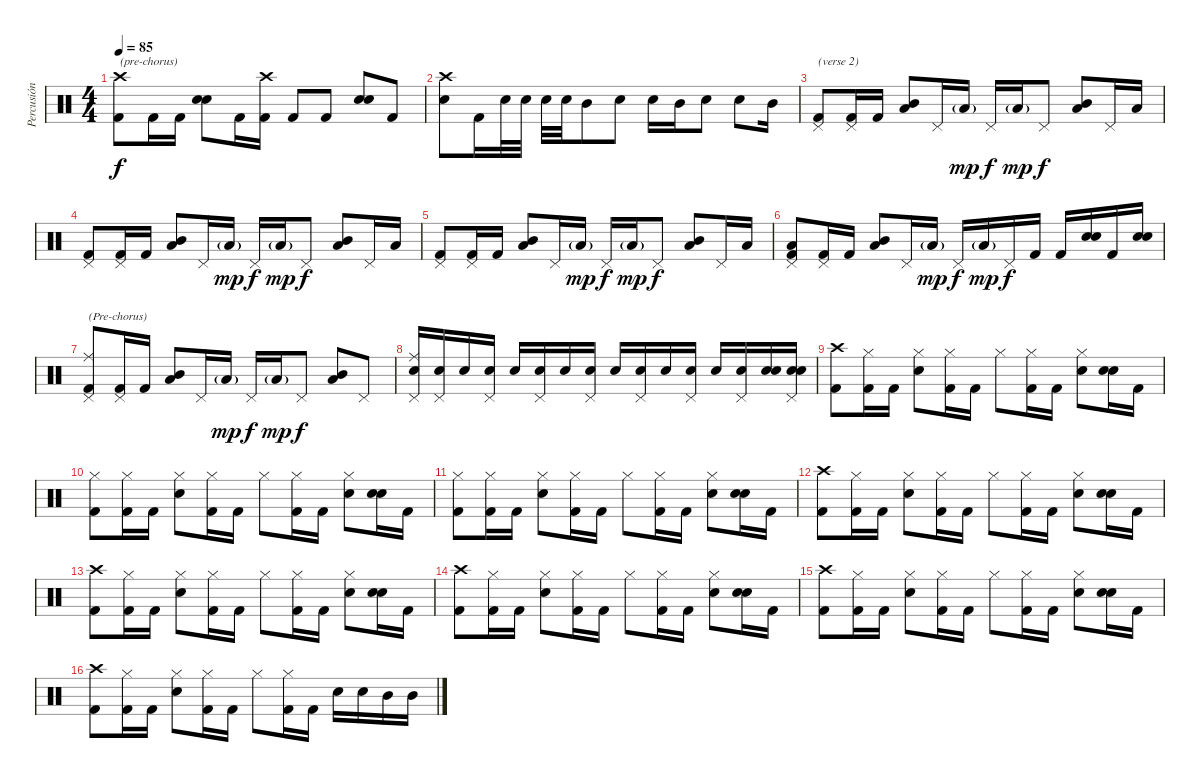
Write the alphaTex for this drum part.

\track ("Percusión" "Percusión") {instrument percussion}
\staff {score}
\articulation defaults
\ts (4 4)
\tempo 85
\clef neutral
\ks c
("Crash high (hit)"{x} "Kick (hit) 2").8{txt "(pre-chorus)" dy f} "Kick (hit) 2".16 "Kick (hit) 2".16 ("Electric Snare (hit)" "Electric Snare (hit)").8 "Kick (hit) 2".16 ("Crash high (hit)"{x} "Kick (hit) 2").16 "Kick (hit) 2".8 "Kick (hit) 2".8 ("Electric Snare (hit)" "Electric Snare (hit)").8 "Kick (hit) 2".8 |
("Crash high (hit)"{x} "Snare (hit) 2").8 "Kick (hit) 2".16 "Snare (hit) 2".32 "Snare (hit) 2".32 "Snare (hit) 2".32 "Snare (hit) 2".32 "Mid Tom (hit)".8 "Snare (hit) 2".8 "Snare (hit) 2".16 "Mid Tom (hit)".16 "Snare (hit) 2".8 "Snare (hit) 2".8 "Mid Tom (hit)".16 |
("Pedal Hi-Hat (hit)"{x} "Kick (hit) 2").8{txt "(verse 2)"} ("Pedal Hi-Hat (hit)"{x} "Kick (hit) 2").16 "Kick (hit) 2".16 ("Mid Tom (hit)" "Low Floor Tom (hit)").8 "Pedal Hi-Hat (hit)"{x}.16 "Low Floor Tom (hit)"{g}.16{dy mp} "Pedal Hi-Hat (hit)"{x}.16{dy f} "Low Floor Tom (hit)"{g}.16{dy mp} "Pedal Hi-Hat (hit)"{x}.8{dy f} ("Mid Tom (hit)" "Low Floor Tom (hit)").8 "Pedal Hi-Hat (hit)"{x}.16 "Low Floor Tom (hit)".16 |
("Pedal Hi-Hat (hit)"{x} "Kick (hit) 2").8 ("Pedal Hi-Hat (hit)"{x} "Kick (hit) 2").16 "Kick (hit) 2".16 ("Mid Tom (hit)" "Low Floor Tom (hit)").8 "Pedal Hi-Hat (hit)"{x}.16 "Low Floor Tom (hit)"{g}.16{dy mp} "Pedal Hi-Hat (hit)"{x}.16{dy f} "Low Floor Tom (hit)"{g}.16{dy mp} "Pedal Hi-Hat (hit)"{x}.8{dy f} ("Mid Tom (hit)" "Low Floor Tom (hit)").8 "Pedal Hi-Hat (hit)"{x}.16 "Low Floor Tom (hit)".16 |
("Pedal Hi-Hat (hit)"{x} "Kick (hit) 2").8 ("Pedal Hi-Hat (hit)"{x} "Kick (hit) 2").16 "Kick (hit) 2".16 ("Mid Tom (hit)" "Low Floor Tom (hit)").8 "Pedal Hi-Hat (hit)"{x}.16 "Low Floor Tom (hit)"{g}.16{dy mp} "Pedal Hi-Hat (hit)"{x}.16{dy f} "Low Floor Tom (hit)"{g}.16{dy mp} "Pedal Hi-Hat (hit)"{x}.8{dy f} ("Mid Tom (hit)" "Low Floor Tom (hit)").8 "Pedal Hi-Hat (hit)"{x}.16 "Low Floor Tom (hit)".16 |
("Low Floor Tom (hit)" "Pedal Hi-Hat (hit)"{x} "Kick (hit) 2").8 ("Pedal Hi-Hat (hit)"{x} "Kick (hit) 2").16 "Kick (hit) 2".16 ("Mid Tom (hit)" "Low Floor Tom (hit)").8 "Pedal Hi-Hat (hit)"{x}.16 "Low Floor Tom (hit)"{g}.16{dy mp} "Pedal Hi-Hat (hit)"{x}.16{dy f} "Low Floor Tom (hit)"{g}.16{dy mp} "Pedal Hi-Hat (hit)"{x}.16{dy f} "Kick (hit) 2".16 "Kick (hit) 2".16 ("Snare (hit) 2" "Snare (hit) 2").16 "Kick (hit) 2".16 ("Snare (hit) 2" "Snare (hit) 2").16 |
("Ride (middle)"{x} "Pedal Hi-Hat (hit)"{x} "Kick (hit) 2").8{txt "(Pre-chorus)"} ("Pedal Hi-Hat (hit)"{x} "Kick (hit) 2").16 "Kick (hit) 2".16 ("Mid Tom (hit)" "Low Floor Tom (hit)").8 "Pedal Hi-Hat (hit)"{x}.16 "Low Floor Tom (hit)"{g}.16{dy mp} "Pedal Hi-Hat (hit)"{x}.16{dy f} "Low Floor Tom (hit)"{g}.16{dy mp} "Pedal Hi-Hat (hit)"{x}.8{dy f} ("Mid Tom (hit)" "Low Floor Tom (hit)").8 "Pedal Hi-Hat (hit)"{x}.8 |
("Ride (middle)"{x} "Electric Snare (hit)" "Pedal Hi-Hat (hit)").16 ("Electric Snare (hit)" "Pedal Hi-Hat (hit)").16 "Electric Snare (hit)".16 ("Electric Snare (hit)" "Pedal Hi-Hat (hit)").16 "Electric Snare (hit)".16 ("Electric Snare (hit)" "Pedal Hi-Hat (hit)").16 "Electric Snare (hit)".16 ("Electric Snare (hit)" "Pedal Hi-Hat (hit)").16 "Electric Snare (hit)".16{volume 9} ("Electric Snare (hit)" "Pedal Hi-Hat (hit)").16 "Electric Snare (hit)".16{volume 9} ("Electric Snare (hit)" "Pedal Hi-Hat (hit)").16 "Electric Snare (hit)".16{volume 10} ("Electric Snare (hit)" "Pedal Hi-Hat (hit)").16 ("Electric Snare (hit)" "Electric Snare (hit)").16{volume 10} ("Electric Snare (hit)" "Electric Snare (hit)" "Pedal Hi-Hat (hit)").16{volume 11} |
("Crash high (hit)"{x} "Kick (hit) 2").8{volume 7} ("Hi-Hat (closed)" "Kick (hit) 2").16{volume 7} "Kick (hit) 2".16 ("Hi-Hat (closed)" "Snare (hit) 2").8{volume 7} ("Hi-Hat (closed)" "Kick (hit) 2").16{volume 7} "Kick (hit) 2".16 "Hi-Hat (closed)".8 ("Hi-Hat (closed)" "Kick (hit) 2").16 "Kick (hit) 2".16 ("Hi-Hat (closed)" "Snare (hit) 2").8 ("Snare (hit) 2" "Snare (hit) 2").16 "Kick (hit) 2".16 |
("Hi-Hat (closed)" "Kick (hit) 2").8 ("Hi-Hat (closed)" "Kick (hit) 2").16 "Kick (hit) 2".16 ("Hi-Hat (closed)" "Snare (hit) 2").8 ("Hi-Hat (closed)" "Kick (hit) 2").16 "Kick (hit) 2".16 "Hi-Hat (closed)".8 ("Hi-Hat (closed)" "Kick (hit) 2").16 "Kick (hit) 2".16 ("Hi-Hat (closed)" "Snare (hit) 2").8 ("Snare (hit) 2" "Snare (hit) 2").16 "Kick (hit) 2".16 |
("Hi-Hat (closed)" "Kick (hit) 2").8 ("Hi-Hat (closed)" "Kick (hit) 2").16 "Kick (hit) 2".16 ("Hi-Hat (closed)" "Snare (hit) 2").8 ("Hi-Hat (closed)" "Kick (hit) 2").16 "Kick (hit) 2".16 "Hi-Hat (closed)".8 ("Hi-Hat (closed)" "Kick (hit) 2").16 "Kick (hit) 2".16 ("Hi-Hat (closed)" "Snare (hit) 2").8 ("Snare (hit) 2" "Snare (hit) 2").16 "Kick (hit) 2".16 |
("Crash high (hit)"{x} "Kick (hit) 2").8 ("Hi-Hat (closed)" "Kick (hit) 2").16 "Kick (hit) 2".16 ("Hi-Hat (closed)" "Snare (hit) 2").8 ("Hi-Hat (closed)" "Kick (hit) 2").16 "Kick (hit) 2".16 "Hi-Hat (closed)".8 ("Hi-Hat (closed)" "Kick (hit) 2").16 "Kick (hit) 2".16 ("Hi-Hat (closed)" "Snare (hit) 2").8 ("Snare (hit) 2" "Snare (hit) 2").16 "Kick (hit) 2".16 |
("Crash high (hit)"{x} "Kick (hit) 2").8 ("Hi-Hat (closed)" "Kick (hit) 2").16 "Kick (hit) 2".16 ("Hi-Hat (closed)" "Snare (hit) 2").8 ("Hi-Hat (closed)" "Kick (hit) 2").16 "Kick (hit) 2".16 "Hi-Hat (closed)".8 ("Hi-Hat (closed)" "Kick (hit) 2").16 "Kick (hit) 2".16 ("Hi-Hat (closed)" "Snare (hit) 2").8 ("Snare (hit) 2" "Snare (hit) 2").16 "Kick (hit) 2".16 |
("Crash high (hit)"{x} "Kick (hit) 2").8 ("Hi-Hat (closed)" "Kick (hit) 2").16 "Kick (hit) 2".16 ("Hi-Hat (closed)" "Snare (hit) 2").8 ("Hi-Hat (closed)" "Kick (hit) 2").16 "Kick (hit) 2".16 "Hi-Hat (closed)".8 ("Hi-Hat (closed)" "Kick (hit) 2").16 "Kick (hit) 2".16 ("Hi-Hat (closed)" "Snare (hit) 2").8 ("Snare (hit) 2" "Snare (hit) 2").16 "Kick (hit) 2".16 |
("Crash high (hit)"{x} "Kick (hit) 2").8 ("Hi-Hat (closed)" "Kick (hit) 2").16 "Kick (hit) 2".16 ("Hi-Hat (closed)" "Snare (hit) 2").8 ("Hi-Hat (closed)" "Kick (hit) 2").16 "Kick (hit) 2".16 "Hi-Hat (closed)".8 ("Hi-Hat (closed)" "Kick (hit) 2").16 "Kick (hit) 2".16 ("Hi-Hat (closed)" "Snare (hit) 2").8 ("Snare (hit) 2" "Snare (hit) 2").16 "Kick (hit) 2".16 |
("Crash high (hit)"{x} "Kick (hit) 2").8 ("Hi-Hat (closed)" "Kick (hit) 2").16 "Kick (hit) 2".16 ("Hi-Hat (closed)" "Snare (hit) 2").8 ("Hi-Hat (closed)" "Kick (hit) 2").16 "Kick (hit) 2".16 "Hi-Hat (closed)".8 ("Hi-Hat (closed)" "Kick (hit) 2").16 "Kick (hit) 2".16 "Snare (hit) 2".16 "Snare (hit) 2".16 "Mid Tom (hit)".16 "Mid Tom (hit)".16
